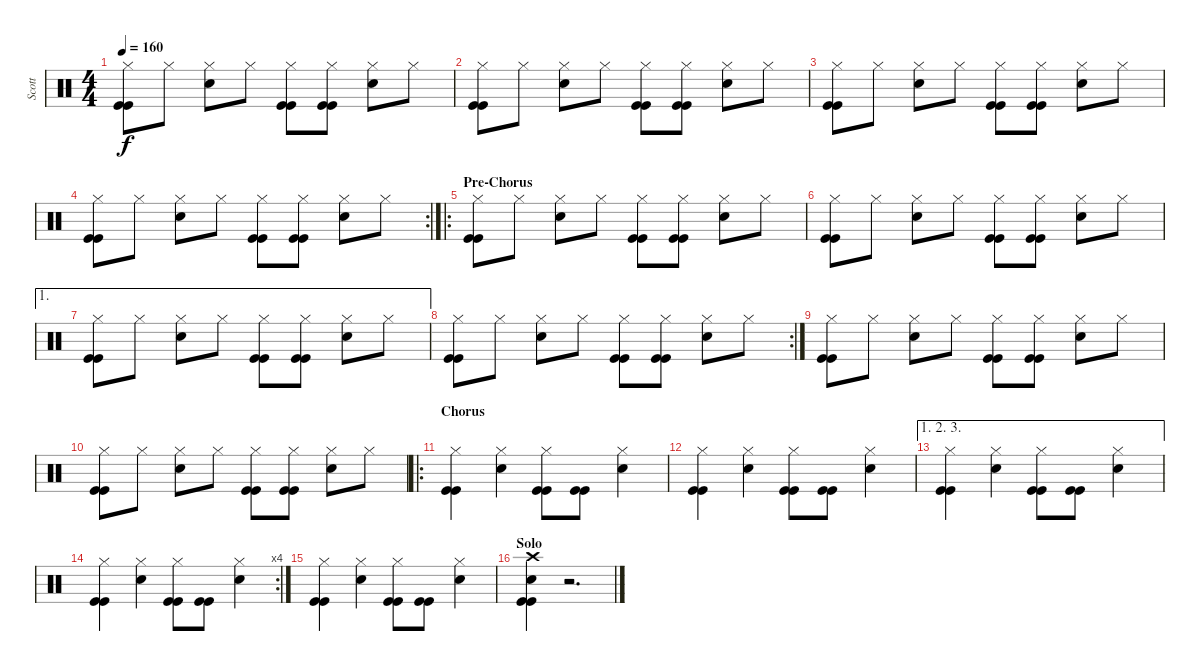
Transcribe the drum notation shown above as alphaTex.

\track ("Scott" "Scott") {instrument percussion}
\staff {score}
\articulation defaults
\ts (4 4)
\tempo 160
\clef neutral
\ks c
("Hi-Hat (closed)" "Kick (hit)" "Kick (hit)").8{dy f} "Hi-Hat (closed)".8 ("Hi-Hat (closed)" "Snare (hit) 2").8 "Hi-Hat (closed)".8 ("Hi-Hat (closed)" "Kick (hit)" "Kick (hit)").8 ("Hi-Hat (closed)" "Kick (hit)" "Kick (hit)").8 ("Hi-Hat (closed)" "Snare (hit) 2").8 "Hi-Hat (closed)".8 |
("Hi-Hat (closed)" "Kick (hit)" "Kick (hit)").8 "Hi-Hat (closed)".8 ("Hi-Hat (closed)" "Snare (hit) 2").8 "Hi-Hat (closed)".8 ("Hi-Hat (closed)" "Kick (hit)" "Kick (hit)").8 ("Hi-Hat (closed)" "Kick (hit)" "Kick (hit)").8 ("Hi-Hat (closed)" "Snare (hit) 2").8 "Hi-Hat (closed)".8 |
("Hi-Hat (closed)" "Kick (hit)" "Kick (hit)").8 "Hi-Hat (closed)".8 ("Hi-Hat (closed)" "Snare (hit) 2").8 "Hi-Hat (closed)".8 ("Hi-Hat (closed)" "Kick (hit)" "Kick (hit)").8 ("Hi-Hat (closed)" "Kick (hit)" "Kick (hit)").8 ("Hi-Hat (closed)" "Snare (hit) 2").8 "Hi-Hat (closed)".8 |
\rc 2
("Hi-Hat (closed)" "Kick (hit)" "Kick (hit)").8 "Hi-Hat (closed)".8 ("Hi-Hat (closed)" "Snare (hit) 2").8 "Hi-Hat (closed)".8 ("Hi-Hat (closed)" "Kick (hit)" "Kick (hit)").8 ("Hi-Hat (closed)" "Kick (hit)" "Kick (hit)").8 ("Hi-Hat (closed)" "Snare (hit) 2").8 "Hi-Hat (closed)".8 |
\ro
\section ("" "Pre-Chorus")
("Hi-Hat (closed)" "Kick (hit)" "Kick (hit)").8 "Hi-Hat (closed)".8 ("Hi-Hat (closed)" "Snare (hit) 2").8 "Hi-Hat (closed)".8 ("Hi-Hat (closed)" "Kick (hit)" "Kick (hit)").8 ("Hi-Hat (closed)" "Kick (hit)" "Kick (hit)").8 ("Hi-Hat (closed)" "Snare (hit) 2").8 "Hi-Hat (closed)".8 |
("Hi-Hat (closed)" "Kick (hit)" "Kick (hit)").8 "Hi-Hat (closed)".8 ("Hi-Hat (closed)" "Snare (hit) 2").8 "Hi-Hat (closed)".8 ("Hi-Hat (closed)" "Kick (hit)" "Kick (hit)").8 ("Hi-Hat (closed)" "Kick (hit)" "Kick (hit)").8 ("Hi-Hat (closed)" "Snare (hit) 2").8 "Hi-Hat (closed)".8 |
\ae 1
("Hi-Hat (closed)" "Kick (hit)" "Kick (hit)").8 "Hi-Hat (closed)".8 ("Hi-Hat (closed)" "Snare (hit) 2").8 "Hi-Hat (closed)".8 ("Hi-Hat (closed)" "Kick (hit)" "Kick (hit)").8 ("Hi-Hat (closed)" "Kick (hit)" "Kick (hit)").8 ("Hi-Hat (closed)" "Snare (hit) 2").8 "Hi-Hat (closed)".8 |
\rc 2
("Hi-Hat (closed)" "Kick (hit)" "Kick (hit)").8 "Hi-Hat (closed)".8 ("Hi-Hat (closed)" "Snare (hit) 2").8 "Hi-Hat (closed)".8 ("Hi-Hat (closed)" "Kick (hit)" "Kick (hit)").8 ("Hi-Hat (closed)" "Kick (hit)" "Kick (hit)").8 ("Hi-Hat (closed)" "Snare (hit) 2").8 "Hi-Hat (closed)".8 |
("Hi-Hat (closed)" "Kick (hit)" "Kick (hit)").8 "Hi-Hat (closed)".8 ("Hi-Hat (closed)" "Snare (hit) 2").8 "Hi-Hat (closed)".8 ("Hi-Hat (closed)" "Kick (hit)" "Kick (hit)").8 ("Hi-Hat (closed)" "Kick (hit)" "Kick (hit)").8 ("Hi-Hat (closed)" "Snare (hit) 2").8 "Hi-Hat (closed)".8 |
("Hi-Hat (closed)" "Kick (hit)" "Kick (hit)").8 "Hi-Hat (closed)".8 ("Hi-Hat (closed)" "Snare (hit) 2").8 "Hi-Hat (closed)".8 ("Hi-Hat (closed)" "Kick (hit)" "Kick (hit)").8 ("Hi-Hat (closed)" "Kick (hit)" "Kick (hit)").8 ("Hi-Hat (closed)" "Snare (hit) 2").8 "Hi-Hat (closed)".8 |
\ro
\section ("" "Chorus")
("Hi-Hat (closed)" "Kick (hit)" "Kick (hit)").4 ("Hi-Hat (closed)" "Snare (hit) 2").4 ("Hi-Hat (closed)" "Kick (hit)" "Kick (hit)").8 ("Kick (hit)" "Kick (hit)").8 ("Hi-Hat (closed)" "Snare (hit) 2").4 |
("Hi-Hat (closed)" "Kick (hit)" "Kick (hit)").4 ("Hi-Hat (closed)" "Snare (hit) 2").4 ("Hi-Hat (closed)" "Kick (hit)" "Kick (hit)").8 ("Kick (hit)" "Kick (hit)").8 ("Hi-Hat (closed)" "Snare (hit) 2").4 |
\ae (1 2 3)
("Hi-Hat (closed)" "Kick (hit)" "Kick (hit)").4 ("Hi-Hat (closed)" "Snare (hit) 2").4 ("Hi-Hat (closed)" "Kick (hit)" "Kick (hit)").8 ("Kick (hit)" "Kick (hit)").8 ("Hi-Hat (closed)" "Snare (hit) 2").4 |
\rc 4
("Hi-Hat (closed)" "Kick (hit)" "Kick (hit)").4 ("Hi-Hat (closed)" "Snare (hit) 2").4 ("Hi-Hat (closed)" "Kick (hit)" "Kick (hit)").8 ("Kick (hit)" "Kick (hit)").8 ("Hi-Hat (closed)" "Snare (hit) 2").4 |
("Hi-Hat (closed)" "Kick (hit)" "Kick (hit)").4 ("Hi-Hat (closed)" "Snare (hit) 2").4 ("Hi-Hat (closed)" "Kick (hit)" "Kick (hit)").8 ("Kick (hit)" "Kick (hit)").8 ("Hi-Hat (closed)" "Snare (hit) 2").4 |
\section ("" "Solo")
("Crash high (hit)" "Snare (hit) 2" "Kick (hit)" "Kick (hit)").4 r.2{d}
